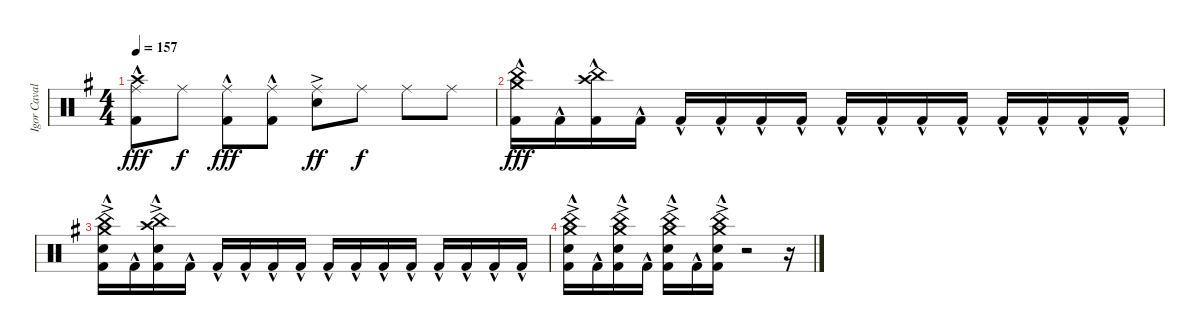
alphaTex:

\track ("Igor Cavalera" "Igor Caval") {instrument percussion}
\staff {score}
\articulation defaults
\ts (4 4)
\tempo 157
\clef neutral
\ks g
("Crash high (hit)" "Ride (middle)" "Kick (hit) 2"{hac}).8{dy fff} "Ride (middle)".8{dy f} ("Ride (middle)" "Kick (hit) 2"{hac}).8{dy fff} ("Ride (middle)" "Kick (hit) 2"{hac}).8 ("Snare (hit) 2"{ac} "Ride (middle)").8{dy ff} "Ride (middle)".8{dy f} "Ride (middle)".8 "Ride (middle)".8 |
("Crash medium (hit)" "China (hit)" "Kick (hit) 2"{hac}).16{dy fff} "Kick (hit) 2"{hac}.16 ("Crash high (hit)" "China (hit)" "Kick (hit) 2"{hac}).16 "Kick (hit) 2"{hac}.16 "Kick (hit) 2"{hac}.16 "Kick (hit) 2"{hac}.16 "Kick (hit) 2"{hac}.16 "Kick (hit) 2"{hac}.16 "Kick (hit) 2"{hac}.16 "Kick (hit) 2"{hac}.16 "Kick (hit) 2"{hac}.16 "Kick (hit) 2"{hac}.16 "Kick (hit) 2"{hac}.16 "Kick (hit) 2"{hac}.16 "Kick (hit) 2"{hac}.16 "Kick (hit) 2"{hac}.16 |
("Crash medium (hit)" "China (hit)" "Snare (hit) 2"{ac} "Kick (hit) 2"{hac}).16 "Kick (hit) 2"{hac}.16 ("Crash high (hit)" "China (hit)" "Snare (hit) 2"{ac} "Kick (hit) 2"{hac}).16 "Kick (hit) 2"{hac}.16 "Kick (hit) 2"{hac}.16 "Kick (hit) 2"{hac}.16 "Kick (hit) 2"{hac}.16 "Kick (hit) 2"{hac}.16 "Kick (hit) 2"{hac}.16 "Kick (hit) 2"{hac}.16 "Kick (hit) 2"{hac}.16 "Kick (hit) 2"{hac}.16 "Kick (hit) 2"{hac}.16 "Kick (hit) 2"{hac}.16 "Kick (hit) 2"{hac}.16 "Kick (hit) 2"{hac}.16 |
("Crash medium (hit)" "China (hit)" "Snare (hit) 2"{ac} "Kick (hit) 2"{hac}).16 "Kick (hit) 2"{hac}.16 ("Crash medium (hit)" "China (hit)" "Snare (hit) 2"{ac} "Kick (hit) 2"{hac}).16 "Kick (hit) 2"{hac}.16 ("Crash medium (hit)" "China (hit)" "Snare (hit) 2"{ac} "Kick (hit) 2"{hac}).16 "Kick (hit) 2"{hac}.16 ("Crash medium (hit)" "China (hit)" "Snare (hit) 2"{ac} "Kick (hit) 2"{hac}).16 r.2 r.16
